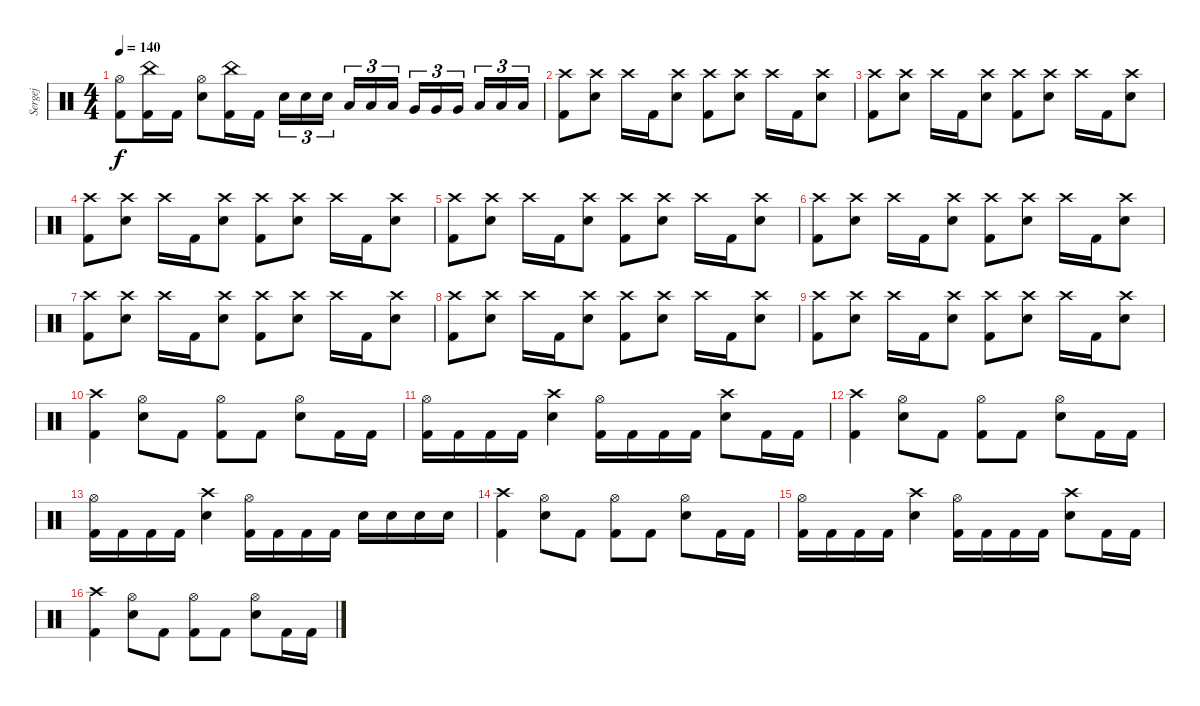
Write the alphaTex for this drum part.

\track ("Sergej" "Sergej") {instrument percussion}
\staff {score}
\articulation defaults
\ts (4 4)
\tempo 140
\clef neutral
\ks c
("Hi-Hat (open)" "Kick (hit) 2").8{dy f} ("China (hit)" "Kick (hit) 2").16 "Kick (hit) 2".16 ("Hi-Hat (open)" "Snare (hit) 2").8 ("China (hit)" "Kick (hit) 2").16 "Kick (hit) 2".16 "Snare (hit) 2".16{tu (3 2)} "Snare (hit) 2".16{tu (3 2)} "Snare (hit) 2".16{tu (3 2)} "Low Tom (hit)".16{tu (3 2)} "Low Tom (hit)".16{tu (3 2)} "Low Tom (hit)".16{tu (3 2)} "Very Low Tom (hit)".16{tu (3 2)} "Very Low Tom (hit)".16{tu (3 2)} "Very Low Tom (hit)".16{tu (3 2)} "Low Floor Tom (hit)".16{tu (3 2)} "Low Floor Tom (hit)".16{tu (3 2)} "Low Floor Tom (hit)".16{tu (3 2)} |
("Crash high (hit)" "Kick (hit) 2").8 ("Crash high (hit)" "Snare (hit) 2").8 "Crash high (hit)".16 "Kick (hit) 2".16 ("Crash high (hit)" "Snare (hit) 2").8 ("Crash high (hit)" "Kick (hit) 2").8 ("Crash high (hit)" "Snare (hit) 2").8 "Crash high (hit)".16 "Kick (hit) 2".16 ("Crash high (hit)" "Snare (hit) 2").8 |
("Crash high (hit)" "Kick (hit) 2").8 ("Crash high (hit)" "Snare (hit) 2").8 "Crash high (hit)".16 "Kick (hit) 2".16 ("Crash high (hit)" "Snare (hit) 2").8 ("Crash high (hit)" "Kick (hit) 2").8 ("Crash high (hit)" "Snare (hit) 2").8 "Crash high (hit)".16 "Kick (hit) 2".16 ("Crash high (hit)" "Snare (hit) 2").8 |
("Crash high (hit)" "Kick (hit) 2").8 ("Crash high (hit)" "Snare (hit) 2").8 "Crash high (hit)".16 "Kick (hit) 2".16 ("Crash high (hit)" "Snare (hit) 2").8 ("Crash high (hit)" "Kick (hit) 2").8 ("Crash high (hit)" "Snare (hit) 2").8 "Crash high (hit)".16 "Kick (hit) 2".16 ("Crash high (hit)" "Snare (hit) 2").8 |
("Crash high (hit)" "Kick (hit) 2").8 ("Crash high (hit)" "Snare (hit) 2").8 "Crash high (hit)".16 "Kick (hit) 2".16 ("Crash high (hit)" "Snare (hit) 2").8 ("Crash high (hit)" "Kick (hit) 2").8 ("Crash high (hit)" "Snare (hit) 2").8 "Crash high (hit)".16 "Kick (hit) 2".16 ("Crash high (hit)" "Snare (hit) 2").8 |
("Crash high (hit)" "Kick (hit) 2").8 ("Crash high (hit)" "Snare (hit) 2").8 "Crash high (hit)".16 "Kick (hit) 2".16 ("Crash high (hit)" "Snare (hit) 2").8 ("Crash high (hit)" "Kick (hit) 2").8 ("Crash high (hit)" "Snare (hit) 2").8 "Crash high (hit)".16 "Kick (hit) 2".16 ("Crash high (hit)" "Snare (hit) 2").8 |
("Crash high (hit)" "Kick (hit) 2").8 ("Crash high (hit)" "Snare (hit) 2").8 "Crash high (hit)".16 "Kick (hit) 2".16 ("Crash high (hit)" "Snare (hit) 2").8 ("Crash high (hit)" "Kick (hit) 2").8 ("Crash high (hit)" "Snare (hit) 2").8 "Crash high (hit)".16 "Kick (hit) 2".16 ("Crash high (hit)" "Snare (hit) 2").8 |
("Crash high (hit)" "Kick (hit) 2").8 ("Crash high (hit)" "Snare (hit) 2").8 "Crash high (hit)".16 "Kick (hit) 2".16 ("Crash high (hit)" "Snare (hit) 2").8 ("Crash high (hit)" "Kick (hit) 2").8 ("Crash high (hit)" "Snare (hit) 2").8 "Crash high (hit)".16 "Kick (hit) 2".16 ("Crash high (hit)" "Snare (hit) 2").8 |
("Crash high (hit)" "Kick (hit) 2").8 ("Crash high (hit)" "Snare (hit) 2").8 "Crash high (hit)".16 "Kick (hit) 2".16 ("Crash high (hit)" "Snare (hit) 2").8 ("Crash high (hit)" "Kick (hit) 2").8 ("Crash high (hit)" "Snare (hit) 2").8 "Crash high (hit)".16 "Kick (hit) 2".16 ("Crash high (hit)" "Snare (hit) 2").8 |
("Crash high (hit)" "Kick (hit) 2").4 ("Hi-Hat (open)" "Snare (hit) 2").8 "Kick (hit) 2".8 ("Hi-Hat (open)" "Kick (hit) 2").8 "Kick (hit) 2".8 ("Hi-Hat (open)" "Snare (hit) 2").8 "Kick (hit) 2".16 "Kick (hit) 2".16 |
("Hi-Hat (open)" "Kick (hit) 2").16 "Kick (hit) 2".16 "Kick (hit) 2".16 "Kick (hit) 2".16 ("Crash high (hit)" "Snare (hit) 2").4 ("Hi-Hat (open)" "Kick (hit) 2").16 "Kick (hit) 2".16 "Kick (hit) 2".16 "Kick (hit) 2".16 ("Crash high (hit)" "Snare (hit) 2").8 "Kick (hit) 2".16 "Kick (hit) 2".16 |
("Crash high (hit)" "Kick (hit) 2").4 ("Hi-Hat (open)" "Snare (hit) 2").8 "Kick (hit) 2".8 ("Hi-Hat (open)" "Kick (hit) 2").8 "Kick (hit) 2".8 ("Hi-Hat (open)" "Snare (hit) 2").8 "Kick (hit) 2".16 "Kick (hit) 2".16 |
("Hi-Hat (open)" "Kick (hit) 2").16 "Kick (hit) 2".16 "Kick (hit) 2".16 "Kick (hit) 2".16 ("Crash high (hit)" "Snare (hit) 2").4 ("Hi-Hat (open)" "Kick (hit) 2").16 "Kick (hit) 2".16 "Kick (hit) 2".16 "Kick (hit) 2".16 "Snare (hit) 2".16 "Snare (hit) 2".16 "Snare (hit) 2".16 "Snare (hit) 2".16 |
("Crash high (hit)" "Kick (hit) 2").4 ("Hi-Hat (open)" "Snare (hit) 2").8 "Kick (hit) 2".8 ("Hi-Hat (open)" "Kick (hit) 2").8 "Kick (hit) 2".8 ("Hi-Hat (open)" "Snare (hit) 2").8 "Kick (hit) 2".16 "Kick (hit) 2".16 |
("Hi-Hat (open)" "Kick (hit) 2").16 "Kick (hit) 2".16 "Kick (hit) 2".16 "Kick (hit) 2".16 ("Crash high (hit)" "Snare (hit) 2").4 ("Hi-Hat (open)" "Kick (hit) 2").16 "Kick (hit) 2".16 "Kick (hit) 2".16 "Kick (hit) 2".16 ("Crash high (hit)" "Snare (hit) 2").8 "Kick (hit) 2".16 "Kick (hit) 2".16 |
("Crash high (hit)" "Kick (hit) 2").4 ("Hi-Hat (open)" "Snare (hit) 2").8 "Kick (hit) 2".8 ("Hi-Hat (open)" "Kick (hit) 2").8 "Kick (hit) 2".8 ("Hi-Hat (open)" "Snare (hit) 2").8 "Kick (hit) 2".16 "Kick (hit) 2".16
